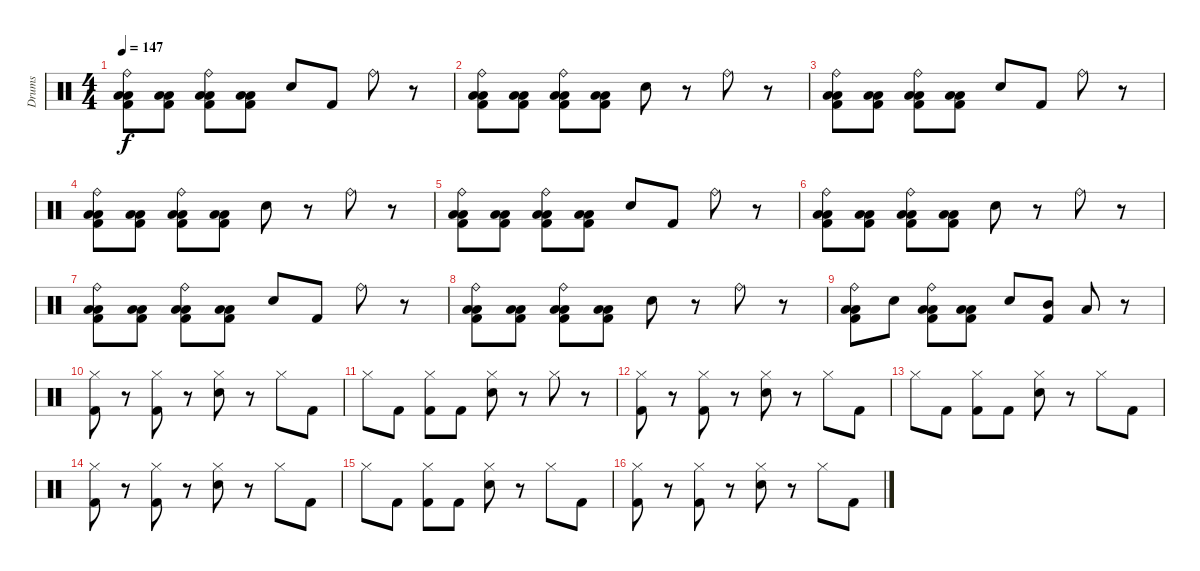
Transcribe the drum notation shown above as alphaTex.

\track ("Drums" "Drums") {instrument percussion}
\staff {score}
\articulation defaults
\ts (4 4)
\tempo 147
\clef neutral
\ks c
("Ride (bell)" "Low Tom (hit)" "Low Floor Tom (hit)" "Kick (hit) 2").8{dy f} ("Low Tom (hit)" "Low Floor Tom (hit)" "Kick (hit) 2").8 ("Ride (bell)" "Low Tom (hit)" "Low Floor Tom (hit)" "Kick (hit) 2").8 ("Low Tom (hit)" "Low Floor Tom (hit)" "Kick (hit) 2").8 "Electric Snare (hit)".8 "Kick (hit) 2".8 "Ride (bell)".8 r.8 |
("Ride (bell)" "Low Tom (hit)" "Low Floor Tom (hit)" "Kick (hit) 2").8 ("Low Tom (hit)" "Low Floor Tom (hit)" "Kick (hit) 2").8 ("Ride (bell)" "Low Tom (hit)" "Low Floor Tom (hit)" "Kick (hit) 2").8 ("Low Tom (hit)" "Low Floor Tom (hit)" "Kick (hit) 2").8 "Electric Snare (hit)".8 r.8 "Ride (bell)".8 r.8 |
("Ride (bell)" "Low Tom (hit)" "Low Floor Tom (hit)" "Kick (hit) 2").8 ("Low Tom (hit)" "Low Floor Tom (hit)" "Kick (hit) 2").8 ("Ride (bell)" "Low Tom (hit)" "Low Floor Tom (hit)" "Kick (hit) 2").8 ("Low Tom (hit)" "Low Floor Tom (hit)" "Kick (hit) 2").8 "Electric Snare (hit)".8 "Kick (hit) 2".8 "Ride (bell)".8 r.8 |
("Ride (bell)" "Low Tom (hit)" "Low Floor Tom (hit)" "Kick (hit) 2").8 ("Low Tom (hit)" "Low Floor Tom (hit)" "Kick (hit) 2").8 ("Ride (bell)" "Low Tom (hit)" "Low Floor Tom (hit)" "Kick (hit) 2").8 ("Low Tom (hit)" "Low Floor Tom (hit)" "Kick (hit) 2").8 "Electric Snare (hit)".8 r.8 "Ride (bell)".8 r.8 |
("Ride (bell)" "Low Tom (hit)" "Low Floor Tom (hit)" "Kick (hit) 2").8 ("Low Tom (hit)" "Low Floor Tom (hit)" "Kick (hit) 2").8 ("Ride (bell)" "Low Tom (hit)" "Low Floor Tom (hit)" "Kick (hit) 2").8 ("Low Tom (hit)" "Low Floor Tom (hit)" "Kick (hit) 2").8 "Electric Snare (hit)".8 "Kick (hit) 2".8 "Ride (bell)".8 r.8 |
("Ride (bell)" "Low Tom (hit)" "Low Floor Tom (hit)" "Kick (hit) 2").8 ("Low Tom (hit)" "Low Floor Tom (hit)" "Kick (hit) 2").8 ("Ride (bell)" "Low Tom (hit)" "Low Floor Tom (hit)" "Kick (hit) 2").8 ("Low Tom (hit)" "Low Floor Tom (hit)" "Kick (hit) 2").8 "Electric Snare (hit)".8 r.8 "Ride (bell)".8 r.8 |
("Ride (bell)" "Low Tom (hit)" "Low Floor Tom (hit)" "Kick (hit) 2").8 ("Low Tom (hit)" "Low Floor Tom (hit)" "Kick (hit) 2").8 ("Ride (bell)" "Low Tom (hit)" "Low Floor Tom (hit)" "Kick (hit) 2").8 ("Low Tom (hit)" "Low Floor Tom (hit)" "Kick (hit) 2").8 "Electric Snare (hit)".8 "Kick (hit) 2".8 "Ride (bell)".8 r.8 |
("Ride (bell)" "Low Tom (hit)" "Low Floor Tom (hit)" "Kick (hit) 2").8 ("Low Tom (hit)" "Low Floor Tom (hit)" "Kick (hit) 2").8 ("Ride (bell)" "Low Tom (hit)" "Low Floor Tom (hit)" "Kick (hit) 2").8 ("Low Tom (hit)" "Low Floor Tom (hit)" "Kick (hit) 2").8 "Electric Snare (hit)".8 r.8 "Ride (bell)".8 r.8 |
("Ride (bell)" "Low Tom (hit)" "Low Floor Tom (hit)" "Kick (hit) 2").8 "Electric Snare (hit)".8 ("Ride (bell)" "Low Tom (hit)" "Low Floor Tom (hit)" "Kick (hit) 2").8 ("Low Tom (hit)" "Low Floor Tom (hit)" "Kick (hit) 2").8 "Electric Snare (hit)".8 ("Mid Tom (hit)" "Kick (hit) 2").8 "Low Tom (hit)".8 r.8 |
("Hi-Hat (closed)" "Kick (hit) 2").8 r.8 ("Hi-Hat (closed)" "Kick (hit) 2").8 r.8 ("Hi-Hat (closed)" "Electric Snare (hit)").8 r.8 "Hi-Hat (closed)".8 "Kick (hit) 2".8 |
"Hi-Hat (closed)".8 "Kick (hit) 2".8 ("Hi-Hat (closed)" "Kick (hit) 2").8 "Kick (hit) 2".8 ("Hi-Hat (closed)" "Electric Snare (hit)").8 r.8 "Hi-Hat (closed)".8 r.8 |
("Hi-Hat (closed)" "Kick (hit) 2").8 r.8 ("Hi-Hat (closed)" "Kick (hit) 2").8 r.8 ("Hi-Hat (closed)" "Electric Snare (hit)").8 r.8 "Hi-Hat (closed)".8 "Kick (hit) 2".8 |
"Hi-Hat (closed)".8 "Kick (hit) 2".8 ("Hi-Hat (closed)" "Kick (hit) 2").8 "Kick (hit) 2".8 ("Hi-Hat (closed)" "Electric Snare (hit)").8 r.8 "Hi-Hat (closed)".8 "Kick (hit) 2".8 |
("Hi-Hat (closed)" "Kick (hit) 2").8 r.8 ("Hi-Hat (closed)" "Kick (hit) 2").8 r.8 ("Hi-Hat (closed)" "Electric Snare (hit)").8 r.8 "Hi-Hat (closed)".8 "Kick (hit) 2".8 |
"Hi-Hat (closed)".8 "Kick (hit) 2".8 ("Hi-Hat (closed)" "Kick (hit) 2").8 "Kick (hit) 2".8 ("Hi-Hat (closed)" "Electric Snare (hit)").8 r.8 "Hi-Hat (closed)".8 "Kick (hit) 2".8 |
("Hi-Hat (closed)" "Kick (hit) 2").8 r.8 ("Hi-Hat (closed)" "Kick (hit) 2").8 r.8 ("Hi-Hat (closed)" "Electric Snare (hit)").8 r.8 "Hi-Hat (closed)".8 "Kick (hit) 2".8
